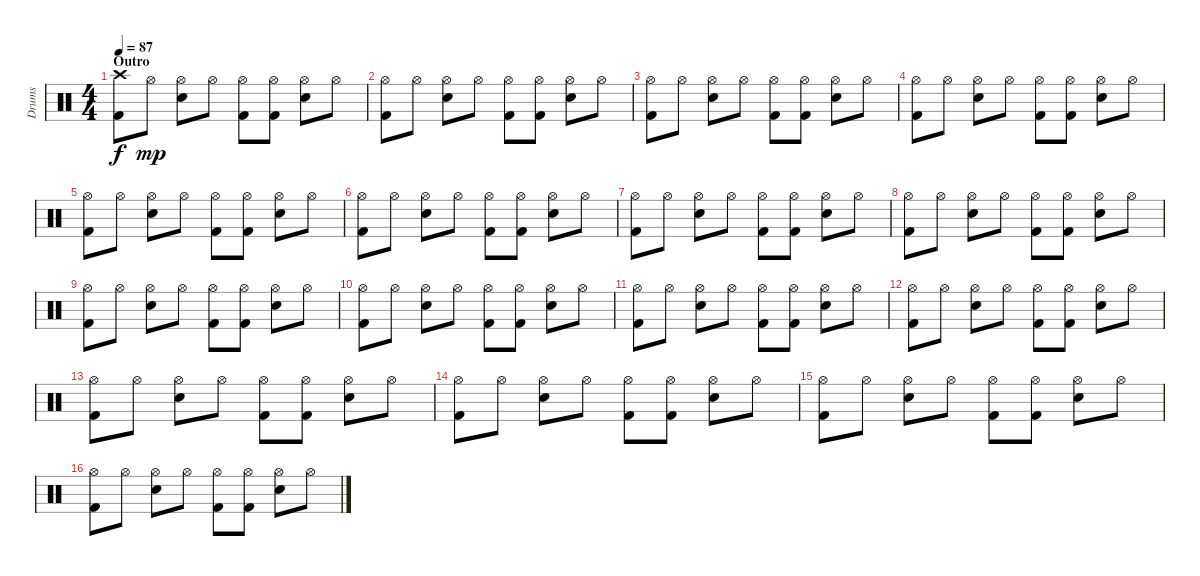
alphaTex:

\track ("Drums" "Drums") {instrument percussion}
\staff {score}
\articulation defaults
\ts (4 4)
\section ("" "Outro")
\tempo 87
\clef neutral
\ks c
("Crash high (hit)" "Kick (hit) 2").8{dy f} "Hi-Hat (open)".8{dy mp} ("Hi-Hat (open)" "Snare (hit) 2").8 "Hi-Hat (open)".8 ("Hi-Hat (open)" "Kick (hit) 2").8 ("Hi-Hat (open)" "Kick (hit) 2").8 ("Hi-Hat (open)" "Snare (hit) 2").8 "Hi-Hat (open)".8 |
("Hi-Hat (open)" "Kick (hit) 2").8 "Hi-Hat (open)".8 ("Hi-Hat (open)" "Snare (hit) 2").8 "Hi-Hat (open)".8 ("Hi-Hat (open)" "Kick (hit) 2").8 ("Hi-Hat (open)" "Kick (hit) 2").8 ("Hi-Hat (open)" "Snare (hit) 2").8 "Hi-Hat (open)".8 |
("Hi-Hat (open)" "Kick (hit) 2").8 "Hi-Hat (open)".8 ("Hi-Hat (open)" "Snare (hit) 2").8 "Hi-Hat (open)".8 ("Hi-Hat (open)" "Kick (hit) 2").8 ("Hi-Hat (open)" "Kick (hit) 2").8 ("Hi-Hat (open)" "Snare (hit) 2").8 "Hi-Hat (open)".8 |
("Hi-Hat (open)" "Kick (hit) 2").8 "Hi-Hat (open)".8 ("Hi-Hat (open)" "Snare (hit) 2").8 "Hi-Hat (open)".8 ("Hi-Hat (open)" "Kick (hit) 2").8 ("Hi-Hat (open)" "Kick (hit) 2").8 ("Hi-Hat (open)" "Snare (hit) 2").8 "Hi-Hat (open)".8 |
("Hi-Hat (open)" "Kick (hit) 2").8 "Hi-Hat (open)".8 ("Hi-Hat (open)" "Snare (hit) 2").8 "Hi-Hat (open)".8 ("Hi-Hat (open)" "Kick (hit) 2").8 ("Hi-Hat (open)" "Kick (hit) 2").8 ("Hi-Hat (open)" "Snare (hit) 2").8 "Hi-Hat (open)".8 |
("Hi-Hat (open)" "Kick (hit) 2").8 "Hi-Hat (open)".8 ("Hi-Hat (open)" "Snare (hit) 2").8 "Hi-Hat (open)".8 ("Hi-Hat (open)" "Kick (hit) 2").8 ("Hi-Hat (open)" "Kick (hit) 2").8 ("Hi-Hat (open)" "Snare (hit) 2").8 "Hi-Hat (open)".8 |
("Hi-Hat (open)" "Kick (hit) 2").8 "Hi-Hat (open)".8 ("Hi-Hat (open)" "Snare (hit) 2").8 "Hi-Hat (open)".8 ("Hi-Hat (open)" "Kick (hit) 2").8 ("Hi-Hat (open)" "Kick (hit) 2").8 ("Hi-Hat (open)" "Snare (hit) 2").8 "Hi-Hat (open)".8 |
("Hi-Hat (open)" "Kick (hit) 2").8 "Hi-Hat (open)".8 ("Hi-Hat (open)" "Snare (hit) 2").8 "Hi-Hat (open)".8 ("Hi-Hat (open)" "Kick (hit) 2").8 ("Hi-Hat (open)" "Kick (hit) 2").8 ("Hi-Hat (open)" "Snare (hit) 2").8 "Hi-Hat (open)".8 |
("Hi-Hat (open)" "Kick (hit) 2").8 "Hi-Hat (open)".8 ("Hi-Hat (open)" "Snare (hit) 2").8 "Hi-Hat (open)".8 ("Hi-Hat (open)" "Kick (hit) 2").8 ("Hi-Hat (open)" "Kick (hit) 2").8 ("Hi-Hat (open)" "Snare (hit) 2").8 "Hi-Hat (open)".8 |
("Hi-Hat (open)" "Kick (hit) 2").8 "Hi-Hat (open)".8 ("Hi-Hat (open)" "Snare (hit) 2").8 "Hi-Hat (open)".8 ("Hi-Hat (open)" "Kick (hit) 2").8 ("Hi-Hat (open)" "Kick (hit) 2").8 ("Hi-Hat (open)" "Snare (hit) 2").8 "Hi-Hat (open)".8 |
("Hi-Hat (open)" "Kick (hit) 2").8 "Hi-Hat (open)".8 ("Hi-Hat (open)" "Snare (hit) 2").8 "Hi-Hat (open)".8 ("Hi-Hat (open)" "Kick (hit) 2").8 ("Hi-Hat (open)" "Kick (hit) 2").8 ("Hi-Hat (open)" "Snare (hit) 2").8 "Hi-Hat (open)".8 |
("Hi-Hat (open)" "Kick (hit) 2").8 "Hi-Hat (open)".8 ("Hi-Hat (open)" "Snare (hit) 2").8 "Hi-Hat (open)".8 ("Hi-Hat (open)" "Kick (hit) 2").8 ("Hi-Hat (open)" "Kick (hit) 2").8 ("Hi-Hat (open)" "Snare (hit) 2").8 "Hi-Hat (open)".8 |
("Hi-Hat (open)" "Kick (hit) 2").8 "Hi-Hat (open)".8 ("Hi-Hat (open)" "Snare (hit) 2").8 "Hi-Hat (open)".8 ("Hi-Hat (open)" "Kick (hit) 2").8 ("Hi-Hat (open)" "Kick (hit) 2").8 ("Hi-Hat (open)" "Snare (hit) 2").8 "Hi-Hat (open)".8 |
("Hi-Hat (open)" "Kick (hit) 2").8 "Hi-Hat (open)".8 ("Hi-Hat (open)" "Snare (hit) 2").8 "Hi-Hat (open)".8 ("Hi-Hat (open)" "Kick (hit) 2").8 ("Hi-Hat (open)" "Kick (hit) 2").8 ("Hi-Hat (open)" "Snare (hit) 2").8 "Hi-Hat (open)".8 |
("Hi-Hat (open)" "Kick (hit) 2").8 "Hi-Hat (open)".8 ("Hi-Hat (open)" "Snare (hit) 2").8 "Hi-Hat (open)".8 ("Hi-Hat (open)" "Kick (hit) 2").8 ("Hi-Hat (open)" "Kick (hit) 2").8 ("Hi-Hat (open)" "Snare (hit) 2").8 "Hi-Hat (open)".8 |
("Hi-Hat (open)" "Kick (hit) 2").8 "Hi-Hat (open)".8 ("Hi-Hat (open)" "Snare (hit) 2").8 "Hi-Hat (open)".8 ("Hi-Hat (open)" "Kick (hit) 2").8 ("Hi-Hat (open)" "Kick (hit) 2").8 ("Hi-Hat (open)" "Snare (hit) 2").8 "Hi-Hat (open)".8
